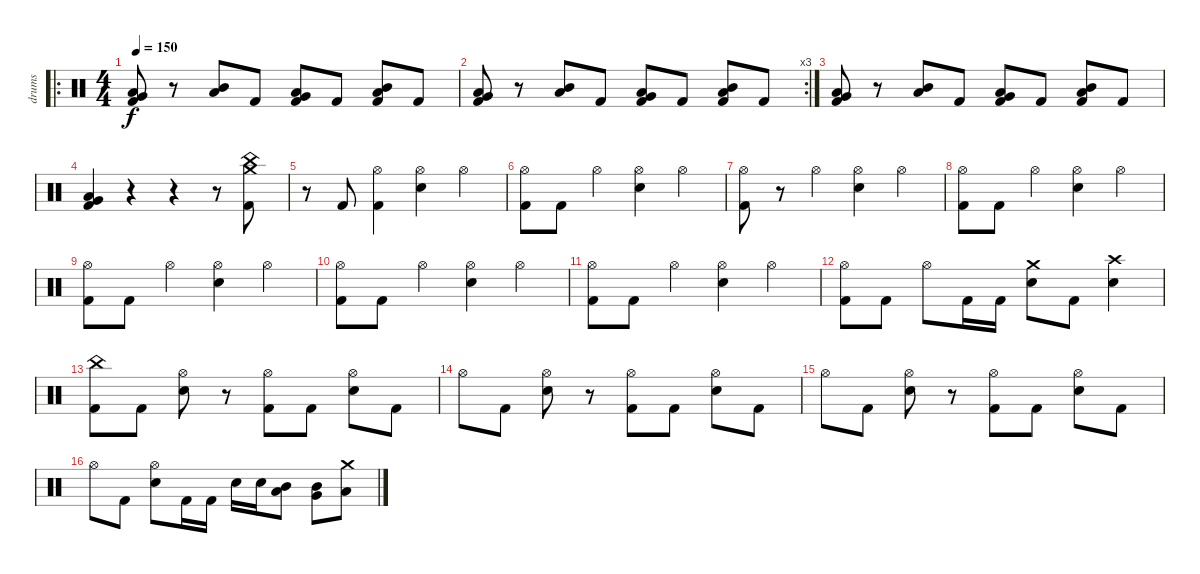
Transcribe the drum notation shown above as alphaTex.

\track ("drums" "drums") {instrument percussion}
\staff {score}
\articulation defaults
\ro
\ts (4 4)
\tempo 150
\clef neutral
\ks c
("Very Low Tom (hit)" "Low Tom (hit)" "Kick (hit) 2").8{dy f} r.8 ("Mid Tom (hit)" "Low Tom (hit)").8 "Kick (hit) 2".8 ("Very Low Tom (hit)" "Low Tom (hit)" "Kick (hit) 2").8 "Kick (hit) 2".8 ("Mid Tom (hit)" "Low Tom (hit)" "Kick (hit) 2").8 "Kick (hit) 2".8 |
\rc 3
("Very Low Tom (hit)" "Low Tom (hit)" "Kick (hit) 2").8 r.8 ("Mid Tom (hit)" "Low Tom (hit)").8 "Kick (hit) 2".8 ("Very Low Tom (hit)" "Low Tom (hit)" "Kick (hit) 2").8 "Kick (hit) 2".8 ("Mid Tom (hit)" "Low Tom (hit)" "Kick (hit) 2").8 "Kick (hit) 2".8 |
("Very Low Tom (hit)" "Low Tom (hit)" "Kick (hit) 2").8 r.8 ("Mid Tom (hit)" "Low Tom (hit)").8 "Kick (hit) 2".8 ("Very Low Tom (hit)" "Low Tom (hit)" "Kick (hit) 2").8 "Kick (hit) 2".8 ("Mid Tom (hit)" "Low Tom (hit)" "Kick (hit) 2").8 "Kick (hit) 2".8 |
("Very Low Tom (hit)" "Low Tom (hit)" "Kick (hit) 2").4 r.4 r.4 r.8 ("China (hit)" "Crash medium (hit)" "Kick (hit) 2").8 |
r.8 "Kick (hit) 2".8 ("Hi-Hat (open)" "Kick (hit) 2").4 ("Hi-Hat (open)" "Electric Snare (hit)").4 "Hi-Hat (open)".4 |
("Hi-Hat (open)" "Kick (hit) 2").8 "Kick (hit) 2".8 "Hi-Hat (open)".4 ("Hi-Hat (open)" "Electric Snare (hit)").4 "Hi-Hat (open)".4 |
("Hi-Hat (open)" "Kick (hit) 2").8 r.8 "Hi-Hat (open)".4 ("Hi-Hat (open)" "Electric Snare (hit)").4 "Hi-Hat (open)".4 |
("Hi-Hat (open)" "Kick (hit) 2").8 "Kick (hit) 2".8 "Hi-Hat (open)".4 ("Hi-Hat (open)" "Electric Snare (hit)").4 "Hi-Hat (open)".4 |
("Hi-Hat (open)" "Kick (hit) 2").8 "Kick (hit) 2".8 "Hi-Hat (open)".4 ("Hi-Hat (open)" "Electric Snare (hit)").4 "Hi-Hat (open)".4 |
("Hi-Hat (open)" "Kick (hit) 2").8 "Kick (hit) 2".8 "Hi-Hat (open)".4 ("Hi-Hat (open)" "Electric Snare (hit)").4 "Hi-Hat (open)".4 |
("Hi-Hat (open)" "Kick (hit) 2").8 "Kick (hit) 2".8 "Hi-Hat (open)".4 ("Hi-Hat (open)" "Electric Snare (hit)").4 "Hi-Hat (open)".4 |
("Hi-Hat (open)" "Kick (hit) 2").8 "Kick (hit) 2".8 "Hi-Hat (open)".8 "Kick (hit) 2".16 "Kick (hit) 2".16 ("Crash medium (hit)" "Electric Snare (hit)").8 "Kick (hit) 2".8 ("Crash high (hit)" "Electric Snare (hit)").4 |
("China (hit)" "Kick (hit) 2").8 "Kick (hit) 2".8 ("Hi-Hat (open)" "Electric Snare (hit)").8 r.8 ("Hi-Hat (open)" "Kick (hit) 2").8 "Kick (hit) 2".8 ("Hi-Hat (open)" "Electric Snare (hit)").8 "Kick (hit) 2".8 |
"Hi-Hat (open)".8 "Kick (hit) 2".8 ("Hi-Hat (open)" "Electric Snare (hit)").8 r.8 ("Hi-Hat (open)" "Kick (hit) 2").8 "Kick (hit) 2".8 ("Hi-Hat (open)" "Electric Snare (hit)").8 "Kick (hit) 2".8 |
"Hi-Hat (open)".8 "Kick (hit) 2".8 ("Hi-Hat (open)" "Electric Snare (hit)").8 r.8 ("Hi-Hat (open)" "Kick (hit) 2").8 "Kick (hit) 2".8 ("Hi-Hat (open)" "Electric Snare (hit)").8 "Kick (hit) 2".8 |
"Hi-Hat (open)".8 "Kick (hit) 2".8 ("Hi-Hat (open)" "Electric Snare (hit)").8 "Kick (hit) 2".16 "Kick (hit) 2".16 "Electric Snare (hit)".16 "Electric Snare (hit)".16 ("Low Tom (hit)" "Mid Tom (hit)").8 ("Very Low Tom (hit)" "Mid Tom (hit)").8 ("Crash medium (hit)" "Low Tom (hit)").8
